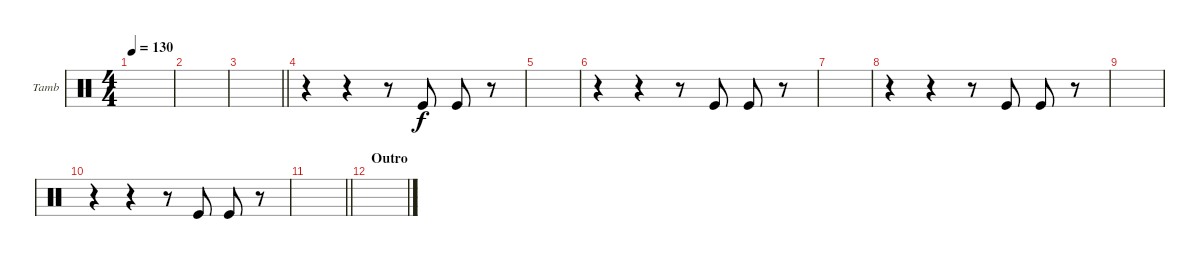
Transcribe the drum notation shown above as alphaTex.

\defaultSystemsLayout 4
\bracketExtendMode groupsimilarinstruments
\firstSystemTrackNameOrientation horizontal
\otherSystemsTrackNameOrientation horizontal
\track ("Tambourine" "Tamb") {instrument percussion}
\staff {score}
\articulation defaults
\ts (4 4)
\tempo 130
\clef neutral
\scale
0.333333
\ks aminor
|
\scale
0.333333 |
\scale
0.333333
\barLineRight lightlight
|
\scale
0.333333 r.4 r.4 r.8 "Kick (hit)".8 "Kick (hit)".8 r.8 |
\scale
0.333333 |
\scale
0.333333 r.4 r.4 r.8 "Kick (hit)".8 "Kick (hit)".8 r.8 |
\scale
0.333333 |
\scale
0.333333 r.4 r.4 r.8 "Kick (hit)".8 "Kick (hit)".8 r.8 |
\scale
0.333333 |
\scale
0.333333 r.4 r.4 r.8 "Kick (hit)".8 "Kick (hit)".8 r.8 |
\scale
0.333333
\barLineRight lightlight
|
\section ("" "Outro")
\scale
0.333333 |
\scale
0.333333 |
\scale
0.333333 |
\scale
0.333333 |
\scale
0.333333
